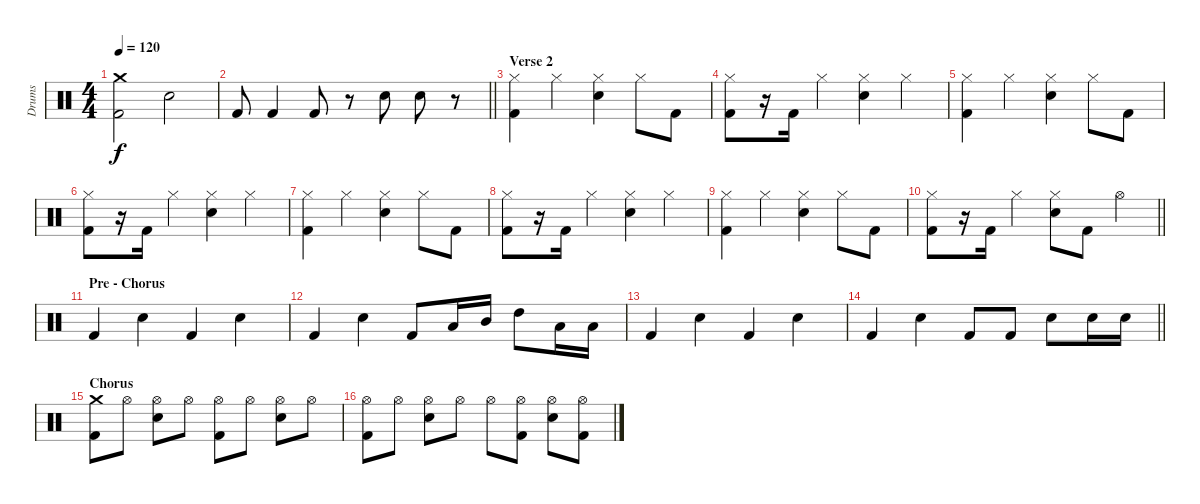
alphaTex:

\track ("Drums" "Drums") {instrument percussion}
\staff {score}
\articulation defaults
\ts (4 4)
\tempo 120
\clef neutral
\ks c
("Crash medium (hit)" "Kick (hit) 2").2{dy f} "Electric Snare (hit)".2 |
\barLineRight lightlight "Kick (hit) 2".8 "Kick (hit) 2".4 "Kick (hit) 2".8
r.8 "Electric Snare (hit)".8 "Electric Snare (hit)".8 r.8 |
\section ("" "Verse 2")
("Hi-Hat (closed)" "Kick (hit) 2").4 "Hi-Hat (closed)".4 ("Hi-Hat (closed)" "Electric Snare (hit)").4 "Hi-Hat (closed)".8 "Kick (hit) 2".8 |
("Hi-Hat (closed)" "Kick (hit) 2").8 r.16 "Kick (hit) 2".16 "Hi-Hat (closed)".4 ("Hi-Hat (closed)" "Electric Snare (hit)").4 "Hi-Hat (closed)".4 |
("Hi-Hat (closed)" "Kick (hit) 2").4 "Hi-Hat (closed)".4 ("Hi-Hat (closed)" "Electric Snare (hit)").4 "Hi-Hat (closed)".8 "Kick (hit) 2".8 |
("Hi-Hat (closed)" "Kick (hit) 2").8 r.16 "Kick (hit) 2".16 "Hi-Hat (closed)".4 ("Hi-Hat (closed)" "Electric Snare (hit)").4 "Hi-Hat (closed)".4 |
("Hi-Hat (closed)" "Kick (hit) 2").4 "Hi-Hat (closed)".4 ("Hi-Hat (closed)" "Electric Snare (hit)").4 "Hi-Hat (closed)".8 "Kick (hit) 2".8 |
("Hi-Hat (closed)" "Kick (hit) 2").8 r.16 "Kick (hit) 2".16 "Hi-Hat (closed)".4 ("Hi-Hat (closed)" "Electric Snare (hit)").4 "Hi-Hat (closed)".4 |
("Hi-Hat (closed)" "Kick (hit) 2").4 "Hi-Hat (closed)".4 ("Hi-Hat (closed)" "Electric Snare (hit)").4 "Hi-Hat (closed)".8 "Kick (hit) 2".8 |
\barLineRight lightlight
("Hi-Hat (closed)" "Kick (hit) 2").8 r.16 "Kick (hit) 2".16 "Hi-Hat (closed)".4 ("Hi-Hat (closed)" "Electric Snare (hit)").8 "Kick (hit) 2".8 "Hi-Hat (open)".4 |
\section ("" "Pre - Chorus")
"Kick (hit) 2".4 "Electric Snare (hit)".4 "Kick (hit) 2".4 "Electric Snare (hit)".4 |
"Kick (hit) 2".4 "Electric Snare (hit)".4 "Kick (hit) 2".8 "Low Tom (hit)".16 "Mid Tom (hit)".16 "High Tom (hit)".8 "Low Tom (hit)".16 "Low Tom (hit)".16 |
"Kick (hit) 2".4 "Electric Snare (hit)".4 "Kick (hit) 2".4 "Electric Snare (hit)".4 |
\barLineRight lightlight "Kick (hit) 2".4 "Electric Snare (hit)".4 "Kick (hit) 2".8 "Kick (hit) 2".8 "Electric Snare (hit)".8 "Electric Snare (hit)".16 "Electric Snare (hit)".16
|
\section ("" "Chorus")
("Crash medium (hit)" "Kick (hit) 2").8 "Hi-Hat (open)".8 ("Hi-Hat (open)" "Electric Snare (hit)").8 "Hi-Hat (open)".8 ("Hi-Hat (open)" "Kick (hit) 2").8 "Hi-Hat (open)".8 ("Hi-Hat (open)" "Electric Snare (hit)").8 "Hi-Hat (open)".8 |
("Hi-Hat (open)" "Kick (hit) 2").8 "Hi-Hat (open)".8 ("Hi-Hat (open)" "Electric Snare (hit)").8 "Hi-Hat (open)".8 "Hi-Hat (open)".8 ("Hi-Hat (open)" "Kick (hit) 2").8 ("Hi-Hat (open)" "Electric Snare (hit)").8 ("Hi-Hat (open)" "Kick (hit) 2").8
